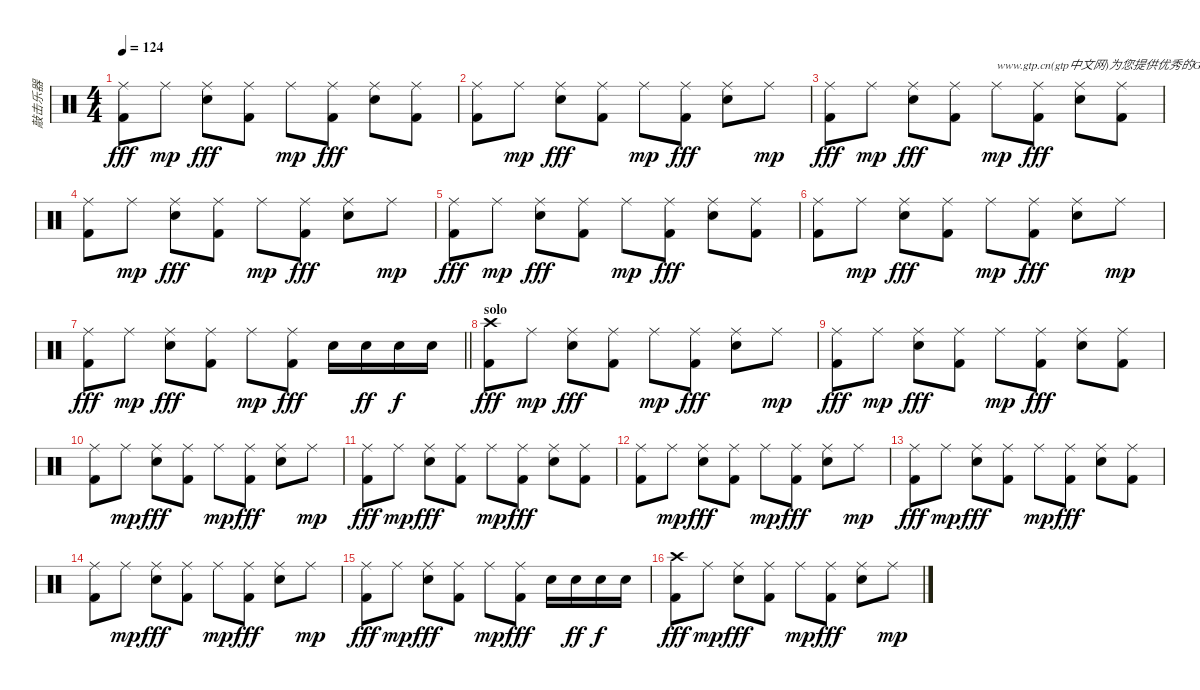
\track ("敲击乐器" "敲击乐器") {instrument percussion}
\staff {score}
\articulation defaults
\ts (4 4)
\tempo 124
\clef neutral
\ks c
("Ride (middle)" "Kick (hit) 2").8{dy fff} "Ride (middle)".8{dy mp} ("Ride (middle)" "Snare (hit) 2").8{dy fff} ("Ride (middle)" "Kick (hit) 2").8 "Ride (middle)".8{dy mp} ("Ride (middle)" "Kick (hit) 2").8{dy fff} ("Ride (middle)" "Snare (hit) 2").8 ("Ride (middle)" "Kick (hit) 2").8 |
("Ride (middle)" "Kick (hit) 2").8 "Ride (middle)".8{dy mp} ("Ride (middle)" "Snare (hit) 2").8{dy fff} ("Ride (middle)" "Kick (hit) 2").8 "Ride (middle)".8{dy mp} ("Ride (middle)" "Kick (hit) 2").8{dy fff} ("Ride (middle)" "Snare (hit) 2").8 "Ride (middle)".8{dy mp} |
("Ride (middle)" "Kick (hit) 2").8{dy fff} "Ride (middle)".8{dy mp} ("Ride (middle)" "Snare (hit) 2").8{dy fff} ("Ride (middle)" "Kick (hit) 2").8 "Ride (middle)".8{txt "www.gtp.cn(gtp中文网)为您提供优秀的GTP!" dy mp} ("Ride (middle)" "Kick (hit) 2").8{dy fff} ("Ride (middle)" "Snare (hit) 2").8 ("Ride (middle)" "Kick (hit) 2").8 |
("Ride (middle)" "Kick (hit) 2").8 "Ride (middle)".8{dy mp} ("Ride (middle)" "Snare (hit) 2").8{dy fff} ("Ride (middle)" "Kick (hit) 2").8 "Ride (middle)".8{dy mp} ("Ride (middle)" "Kick (hit) 2").8{dy fff} ("Ride (middle)" "Snare (hit) 2").8 "Ride (middle)".8{dy mp} |
("Ride (middle)" "Kick (hit) 2").8{dy fff} "Ride (middle)".8{dy mp} ("Ride (middle)" "Snare (hit) 2").8{dy fff} ("Ride (middle)" "Kick (hit) 2").8 "Ride (middle)".8{dy mp} ("Ride (middle)" "Kick (hit) 2").8{dy fff} ("Ride (middle)" "Snare (hit) 2").8 ("Ride (middle)" "Kick (hit) 2").8 |
("Ride (middle)" "Kick (hit) 2").8 "Ride (middle)".8{dy mp} ("Ride (middle)" "Snare (hit) 2").8{dy fff} ("Ride (middle)" "Kick (hit) 2").8 "Ride (middle)".8{dy mp} ("Ride (middle)" "Kick (hit) 2").8{dy fff} ("Ride (middle)" "Snare (hit) 2").8 "Ride (middle)".8{dy mp} |
\barLineRight lightlight
("Ride (middle)" "Kick (hit) 2").8{dy fff} "Ride (middle)".8{dy mp} ("Ride (middle)" "Snare (hit) 2").8{dy fff} ("Ride (middle)" "Kick (hit) 2").8 "Ride (middle)".8{dy mp} ("Ride (middle)" "Kick (hit) 2").8{dy fff} "Snare (hit) 2".16 "Snare (hit) 2".16{dy ff} "Snare (hit) 2".16{dy f} "Snare (hit) 2".16 |
\section ("" "solo")
("Crash high (hit)" "Kick (hit) 2").8{dy fff} "Ride (middle)".8{dy mp} ("Ride (middle)" "Snare (hit) 2").8{dy fff} ("Ride (middle)" "Kick (hit) 2").8 "Ride (middle)".8{dy mp} ("Ride (middle)" "Kick (hit) 2").8{dy fff} ("Ride (middle)" "Snare (hit) 2").8 "Ride (middle)".8{dy mp} |
("Ride (middle)" "Kick (hit) 2").8{dy fff} "Ride (middle)".8{dy mp} ("Ride (middle)" "Snare (hit) 2").8{dy fff} ("Ride (middle)" "Kick (hit) 2").8 "Ride (middle)".8{dy mp} ("Ride (middle)" "Kick (hit) 2").8{dy fff} ("Ride (middle)" "Snare (hit) 2").8 ("Ride (middle)" "Kick (hit) 2").8 |
("Ride (middle)" "Kick (hit) 2").8 "Ride (middle)".8{dy mp} ("Ride (middle)" "Snare (hit) 2").8{dy fff} ("Ride (middle)" "Kick (hit) 2").8 "Ride (middle)".8{dy mp} ("Ride (middle)" "Kick (hit) 2").8{dy fff} ("Ride (middle)" "Snare (hit) 2").8 "Ride (middle)".8{dy mp} |
("Ride (middle)" "Kick (hit) 2").8{dy fff} "Ride (middle)".8{dy mp} ("Ride (middle)" "Snare (hit) 2").8{dy fff} ("Ride (middle)" "Kick (hit) 2").8 "Ride (middle)".8{dy mp} ("Ride (middle)" "Kick (hit) 2").8{dy fff} ("Ride (middle)" "Snare (hit) 2").8 ("Ride (middle)" "Kick (hit) 2").8 |
("Ride (middle)" "Kick (hit) 2").8 "Ride (middle)".8{dy mp} ("Ride (middle)" "Snare (hit) 2").8{dy fff} ("Ride (middle)" "Kick (hit) 2").8 "Ride (middle)".8{dy mp} ("Ride (middle)" "Kick (hit) 2").8{dy fff} ("Ride (middle)" "Snare (hit) 2").8 "Ride (middle)".8{dy mp} |
("Ride (middle)" "Kick (hit) 2").8{dy fff} "Ride (middle)".8{dy mp} ("Ride (middle)" "Snare (hit) 2").8{dy fff} ("Ride (middle)" "Kick (hit) 2").8 "Ride (middle)".8{dy mp} ("Ride (middle)" "Kick (hit) 2").8{dy fff} ("Ride (middle)" "Snare (hit) 2").8 ("Ride (middle)" "Kick (hit) 2").8 |
("Ride (middle)" "Kick (hit) 2").8 "Ride (middle)".8{dy mp} ("Ride (middle)" "Snare (hit) 2").8{dy fff} ("Ride (middle)" "Kick (hit) 2").8 "Ride (middle)".8{dy mp} ("Ride (middle)" "Kick (hit) 2").8{dy fff} ("Ride (middle)" "Snare (hit) 2").8 "Ride (middle)".8{dy mp} |
("Ride (middle)" "Kick (hit) 2").8{dy fff} "Ride (middle)".8{dy mp} ("Ride (middle)" "Snare (hit) 2").8{dy fff} ("Ride (middle)" "Kick (hit) 2").8 "Ride (middle)".8{dy mp} ("Ride (middle)" "Kick (hit) 2").8{dy fff} "Snare (hit) 2".16 "Snare (hit) 2".16{dy ff} "Snare (hit) 2".16{dy f} "Snare (hit) 2".16 |
("Crash high (hit)" "Kick (hit) 2").8{dy fff} "Ride (middle)".8{dy mp} ("Ride (middle)" "Snare (hit) 2").8{dy fff} ("Ride (middle)" "Kick (hit) 2").8 "Ride (middle)".8{dy mp} ("Ride (middle)" "Kick (hit) 2").8{dy fff} ("Ride (middle)" "Snare (hit) 2").8 "Ride (middle)".8{dy mp}
